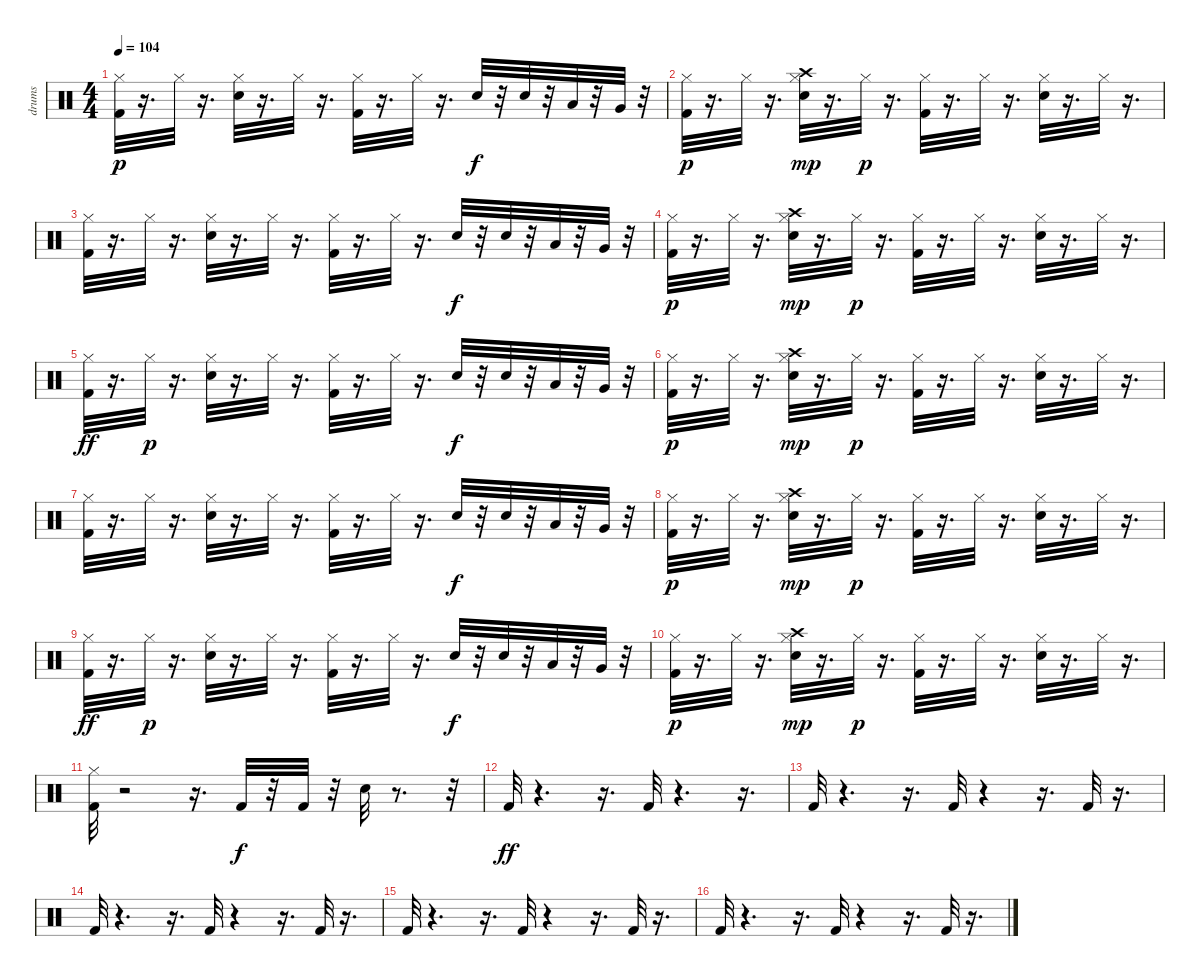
\track ("drums" "drums") {instrument percussion}
\staff {score}
\articulation defaults
\ts (4 4)
\tempo 104
\clef neutral
\ks c
("Kick (hit) 2" "Hi-Hat (closed)").32{dy p} r.16{d} "Hi-Hat (closed)".32 r.16{d} ("Snare (hit) 2" "Hi-Hat (closed)").32 r.16{d} "Hi-Hat (closed)".32 r.16{d} ("Kick (hit) 2" "Hi-Hat (closed)").32 r.16{d} "Hi-Hat (closed)".32 r.16{d} "Snare (hit) 2".32{dy f} r.32 "Snare (hit) 2".32 r.32 "Low Tom (hit)".32 r.32 "Very Low Tom (hit)".32 r.32 |
("Kick (hit) 2" "Hi-Hat (closed)").32{dy p} r.16{d} "Hi-Hat (closed)".32 r.16{d} ("Snare (hit) 2" "Hi-Hat (closed)" "Crash high (hit)").32{dy mp} r.16{d} "Hi-Hat (closed)".32{dy p} r.16{d} ("Kick (hit) 2" "Hi-Hat (closed)").32 r.16{d} "Hi-Hat (closed)".32 r.16{d} ("Snare (hit) 2" "Hi-Hat (closed)").32 r.16{d} "Hi-Hat (closed)".32 r.16{d} |
("Kick (hit) 2" "Hi-Hat (closed)").32 r.16{d} "Hi-Hat (closed)".32 r.16{d} ("Snare (hit) 2" "Hi-Hat (closed)").32 r.16{d} "Hi-Hat (closed)".32 r.16{d} ("Kick (hit) 2" "Hi-Hat (closed)").32 r.16{d} "Hi-Hat (closed)".32 r.16{d} "Snare (hit) 2".32{dy f} r.32 "Snare (hit) 2".32 r.32 "Low Tom (hit)".32 r.32 "Very Low Tom (hit)".32 r.32 |
("Kick (hit) 2" "Hi-Hat (closed)").32{dy p} r.16{d} "Hi-Hat (closed)".32 r.16{d} ("Snare (hit) 2" "Hi-Hat (closed)" "Crash high (hit)").32{dy mp} r.16{d} "Hi-Hat (closed)".32{dy p} r.16{d} ("Kick (hit) 2" "Hi-Hat (closed)").32 r.16{d} "Hi-Hat (closed)".32 r.16{d} ("Snare (hit) 2" "Hi-Hat (closed)").32 r.16{d} "Hi-Hat (closed)".32 r.16{d} |
("Hi-Hat (closed)" "Kick (hit) 2").32{dy ff} r.16{d} "Hi-Hat (closed)".32{dy p} r.16{d} ("Snare (hit) 2" "Hi-Hat (closed)").32 r.16{d} "Hi-Hat (closed)".32 r.16{d} ("Kick (hit) 2" "Hi-Hat (closed)").32 r.16{d} "Hi-Hat (closed)".32 r.16{d} "Snare (hit) 2".32{dy f} r.32 "Snare (hit) 2".32 r.32 "Low Tom (hit)".32 r.32 "Very Low Tom (hit)".32 r.32 |
("Kick (hit) 2" "Hi-Hat (closed)").32{dy p} r.16{d} "Hi-Hat (closed)".32 r.16{d} ("Snare (hit) 2" "Hi-Hat (closed)" "Crash high (hit)").32{dy mp} r.16{d} "Hi-Hat (closed)".32{dy p} r.16{d} ("Kick (hit) 2" "Hi-Hat (closed)").32 r.16{d} "Hi-Hat (closed)".32 r.16{d} ("Snare (hit) 2" "Hi-Hat (closed)").32 r.16{d} "Hi-Hat (closed)".32 r.16{d} |
("Kick (hit) 2" "Hi-Hat (closed)").32 r.16{d} "Hi-Hat (closed)".32 r.16{d} ("Snare (hit) 2" "Hi-Hat (closed)").32 r.16{d} "Hi-Hat (closed)".32 r.16{d} ("Kick (hit) 2" "Hi-Hat (closed)").32 r.16{d} "Hi-Hat (closed)".32 r.16{d} "Snare (hit) 2".32{dy f} r.32 "Snare (hit) 2".32 r.32 "Low Tom (hit)".32 r.32 "Very Low Tom (hit)".32 r.32 |
("Kick (hit) 2" "Hi-Hat (closed)").32{dy p} r.16{d} "Hi-Hat (closed)".32 r.16{d} ("Snare (hit) 2" "Hi-Hat (closed)" "Crash high (hit)").32{dy mp} r.16{d} "Hi-Hat (closed)".32{dy p} r.16{d} ("Kick (hit) 2" "Hi-Hat (closed)").32 r.16{d} "Hi-Hat (closed)".32 r.16{d} ("Snare (hit) 2" "Hi-Hat (closed)").32 r.16{d} "Hi-Hat (closed)".32 r.16{d} |
("Hi-Hat (closed)" "Kick (hit) 2").32{dy ff} r.16{d} "Hi-Hat (closed)".32{dy p} r.16{d} ("Snare (hit) 2" "Hi-Hat (closed)").32 r.16{d} "Hi-Hat (closed)".32 r.16{d} ("Kick (hit) 2" "Hi-Hat (closed)").32 r.16{d} "Hi-Hat (closed)".32 r.16{d} "Snare (hit) 2".32{dy f} r.32 "Snare (hit) 2".32 r.32 "Low Tom (hit)".32 r.32 "Very Low Tom (hit)".32 r.32 |
("Kick (hit) 2" "Hi-Hat (closed)").32{dy p} r.16{d} "Hi-Hat (closed)".32 r.16{d} ("Snare (hit) 2" "Hi-Hat (closed)" "Crash high (hit)").32{dy mp} r.16{d} "Hi-Hat (closed)".32{dy p} r.16{d} ("Kick (hit) 2" "Hi-Hat (closed)").32 r.16{d} "Hi-Hat (closed)".32 r.16{d} ("Snare (hit) 2" "Hi-Hat (closed)").32 r.16{d} "Hi-Hat (closed)".32 r.16{d} |
("Kick (hit) 2" "Hi-Hat (closed)").32 r.2 r.16{d} "Kick (hit) 2".32{dy f} r.32 "Kick (hit) 2".32 r.32 "Snare (hit) 2".32 r.8{d} r.32 |
"Kick (hit) 2".32{dy ff} r.4{d} r.16{d} "Kick (hit) 2".32 r.4{d} r.16{d} |
"Kick (hit) 2".32 r.4{d} r.16{d} "Kick (hit) 2".32 r.4 r.16{d} "Kick (hit) 2".32 r.16{d} |
"Kick (hit) 2".32 r.4{d} r.16{d} "Kick (hit) 2".32 r.4 r.16{d} "Kick (hit) 2".32 r.16{d} |
"Kick (hit) 2".32 r.4{d} r.16{d} "Kick (hit) 2".32 r.4 r.16{d} "Kick (hit) 2".32 r.16{d} |
"Kick (hit) 2".32 r.4{d} r.16{d} "Kick (hit) 2".32 r.4 r.16{d} "Kick (hit) 2".32 r.16{d}
